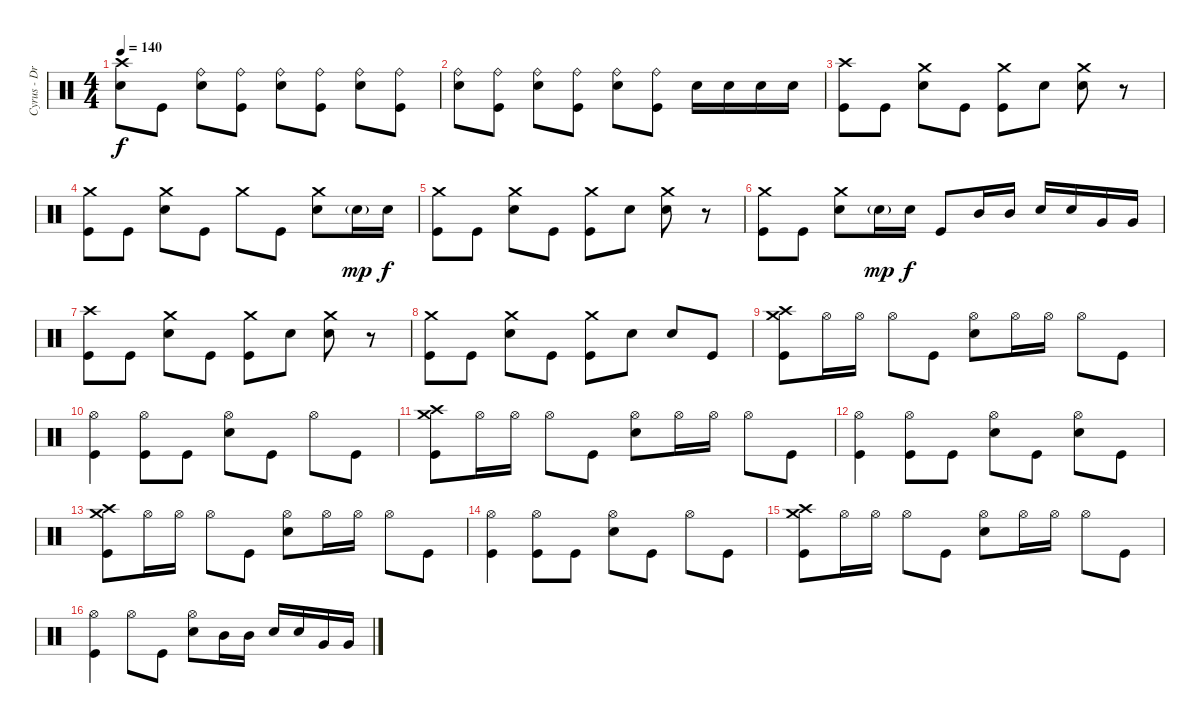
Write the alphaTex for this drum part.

\track ("Cyrus - Drums" "Cyrus - Dr") {instrument percussion}
\staff {score}
\articulation defaults
\ts (4 4)
\tempo 140
\clef neutral
\ks c
("Crash high (hit)" "Electric Snare (hit)").8{dy f} "Kick (hit)".8 ("Ride (bell)" "Electric Snare (hit)").8 ("Ride (bell)" "Kick (hit)").8 ("Ride (bell)" "Electric Snare (hit)").8 ("Ride (bell)" "Kick (hit)").8 ("Ride (bell)" "Electric Snare (hit)").8 ("Ride (bell)" "Kick (hit)").8 |
("Ride (bell)" "Electric Snare (hit)").8 ("Ride (bell)" "Kick (hit)").8 ("Ride (bell)" "Electric Snare (hit)").8 ("Ride (bell)" "Kick (hit)").8 ("Ride (bell)" "Electric Snare (hit)").8 ("Ride (bell)" "Kick (hit)").8 "Electric Snare (hit)".16 "Electric Snare (hit)".16 "Electric Snare (hit)".16 "Electric Snare (hit)".16 |
("Crash high (hit)" "Kick (hit)").8 "Kick (hit)".8 ("Crash medium (hit)" "Electric Snare (hit)").8 "Kick (hit)".8 ("Crash medium (hit)" "Kick (hit)").8 "Electric Snare (hit)".8 ("Crash medium (hit)" "Electric Snare (hit)").8 r.8 |
("Crash medium (hit)" "Kick (hit)").8 "Kick (hit)".8 ("Crash medium (hit)" "Electric Snare (hit)").8 "Kick (hit)".8 "Crash medium (hit)".8 "Kick (hit)".8 ("Crash medium (hit)" "Electric Snare (hit)").8 "Electric Snare (hit)"{g}.16{dy mp} "Electric Snare (hit)".16{dy f} |
("Crash medium (hit)" "Kick (hit)").8 "Kick (hit)".8 ("Crash medium (hit)" "Electric Snare (hit)").8 "Kick (hit)".8 ("Crash medium (hit)" "Kick (hit)").8 "Electric Snare (hit)".8 ("Crash medium (hit)" "Electric Snare (hit)").8 r.8 |
("Crash medium (hit)" "Kick (hit)").8 "Kick (hit)".8 ("Crash medium (hit)" "Electric Snare (hit)").8 "Electric Snare (hit)"{g}.16{dy mp} "Electric Snare (hit)".16{dy f} "Kick (hit)".8 "Mid Tom (hit)".16 "Mid Tom (hit)".16 "Electric Snare (hit)".16 "Electric Snare (hit)".16 "Very Low Tom (hit)".16 "Very Low Tom (hit)".16 |
("Crash high (hit)" "Kick (hit)").8 "Kick (hit)".8 ("Crash medium (hit)" "Electric Snare (hit)").8 "Kick (hit)".8 ("Crash medium (hit)" "Kick (hit)").8 "Electric Snare (hit)".8 ("Crash medium (hit)" "Electric Snare (hit)").8 r.8 |
("Crash medium (hit)" "Kick (hit)").8 "Kick (hit)".8 ("Crash medium (hit)" "Electric Snare (hit)").8 "Kick (hit)".8 ("Crash medium (hit)" "Kick (hit)").8 "Electric Snare (hit)".8 "Electric Snare (hit)".8 "Kick (hit)".8 |
("Crash medium (hit)" "Crash high (hit)" "Kick (hit)").8 "Hi-Hat (open)".16 "Hi-Hat (open)".16 "Hi-Hat (open)".8 "Kick (hit)".8 ("Hi-Hat (open)" "Electric Snare (hit)").8 "Hi-Hat (open)".16 "Hi-Hat (open)".16 "Hi-Hat (open)".8 "Kick (hit)".8 |
("Hi-Hat (open)" "Kick (hit)").4 ("Hi-Hat (open)" "Kick (hit)").8 "Kick (hit)".8 ("Hi-Hat (open)" "Electric Snare (hit)").8 "Kick (hit)".8 "Hi-Hat (open)".8 "Kick (hit)".8 |
("Crash high (hit)" "Crash medium (hit)" "Kick (hit)").8 "Hi-Hat (open)".16 "Hi-Hat (open)".16 "Hi-Hat (open)".8 "Kick (hit)".8 ("Hi-Hat (open)" "Electric Snare (hit)").8 "Hi-Hat (open)".16 "Hi-Hat (open)".16 "Hi-Hat (open)".8 "Kick (hit)".8 |
("Hi-Hat (open)" "Kick (hit)").4 ("Hi-Hat (open)" "Kick (hit)").8 "Kick (hit)".8 ("Hi-Hat (open)" "Electric Snare (hit)").8 "Kick (hit)".8 ("Hi-Hat (open)" "Electric Snare (hit)").8 "Kick (hit)".8 |
("Crash medium (hit)" "Crash high (hit)" "Kick (hit)").8 "Hi-Hat (open)".16 "Hi-Hat (open)".16 "Hi-Hat (open)".8 "Kick (hit)".8 ("Hi-Hat (open)" "Electric Snare (hit)").8 "Hi-Hat (open)".16 "Hi-Hat (open)".16 "Hi-Hat (open)".8 "Kick (hit)".8 |
("Hi-Hat (open)" "Kick (hit)").4 ("Hi-Hat (open)" "Kick (hit)").8 "Kick (hit)".8 ("Hi-Hat (open)" "Electric Snare (hit)").8 "Kick (hit)".8 "Hi-Hat (open)".8 "Kick (hit)".8 |
("Crash high (hit)" "Crash medium (hit)" "Kick (hit)").8 "Hi-Hat (open)".16 "Hi-Hat (open)".16 "Hi-Hat (open)".8 "Kick (hit)".8 ("Hi-Hat (open)" "Electric Snare (hit)").8 "Hi-Hat (open)".16 "Hi-Hat (open)".16 "Hi-Hat (open)".8 "Kick (hit)".8 |
("Hi-Hat (open)" "Kick (hit)").4 "Hi-Hat (open)".8 "Kick (hit)".8 ("Hi-Hat (open)" "Electric Snare (hit)").8 "Mid Tom (hit)".16 "Mid Tom (hit)".16 "Electric Snare (hit)".16 "Electric Snare (hit)".16 "Very Low Tom (hit)".16 "Very Low Tom (hit)".16
